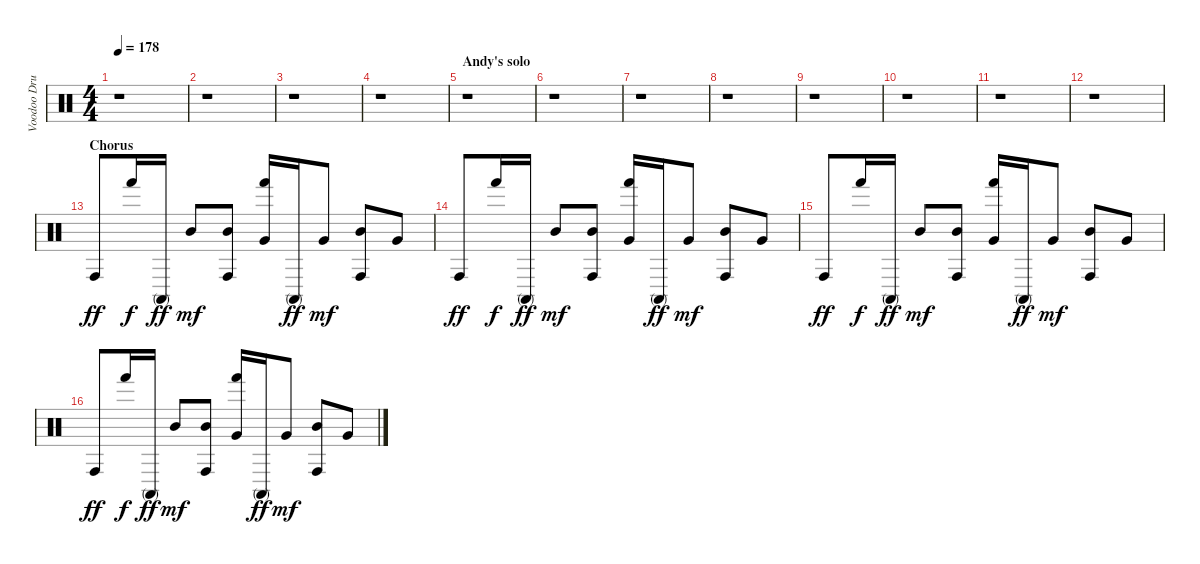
\track ("Voodoo Drums" "Voodoo Dru") {instrument percussion}
\staff {score}
\articulation defaults
\ts (4 4)
\tempo 178
\clef neutral
\ks c
r.1{dy mf} |
r.1 |
r.1 |
r.1 |
\section ("" "Andy's solo")
r.1 |
r.1 |
r.1 |
r.1 |
r.1 |
r.1 |
r.1 |
r.1 |
\section ("" "Chorus")
"Conga high (hit)".8{dy ff} "Hand (hit)".16{dy f} "Conga high (mute)".16{dy ff} "Mid Tom (hit)".8{dy mf} ("Conga high (hit)" "Mid Tom (hit)").8 ("Hand (hit)" "Very Low Tom (hit)").16 "Conga high (mute)".16{dy ff} "Very Low Tom (hit)".8{dy mf} ("Conga high (hit)" "Mid Tom (hit)").8 "Very Low Tom (hit)".8 |
"Conga high (hit)".8{dy ff} "Hand (hit)".16{dy f} "Conga high (mute)".16{dy ff} "Mid Tom (hit)".8{dy mf} ("Conga high (hit)" "Mid Tom (hit)").8 ("Hand (hit)" "Very Low Tom (hit)").16 "Conga high (mute)".16{dy ff} "Very Low Tom (hit)".8{dy mf} ("Conga high (hit)" "Mid Tom (hit)").8 "Very Low Tom (hit)".8 |
"Conga high (hit)".8{dy ff} "Hand (hit)".16{dy f} "Conga high (mute)".16{dy ff} "Mid Tom (hit)".8{dy mf} ("Conga high (hit)" "Mid Tom (hit)").8 ("Hand (hit)" "Very Low Tom (hit)").16 "Conga high (mute)".16{dy ff} "Very Low Tom (hit)".8{dy mf} ("Conga high (hit)" "Mid Tom (hit)").8 "Very Low Tom (hit)".8 |
"Conga high (hit)".8{dy ff} "Hand (hit)".16{dy f} "Conga high (mute)".16{dy ff} "Mid Tom (hit)".8{dy mf} ("Conga high (hit)" "Mid Tom (hit)").8 ("Hand (hit)" "Very Low Tom (hit)").16 "Conga high (mute)".16{dy ff} "Very Low Tom (hit)".8{dy mf} ("Conga high (hit)" "Mid Tom (hit)").8 "Very Low Tom (hit)".8
